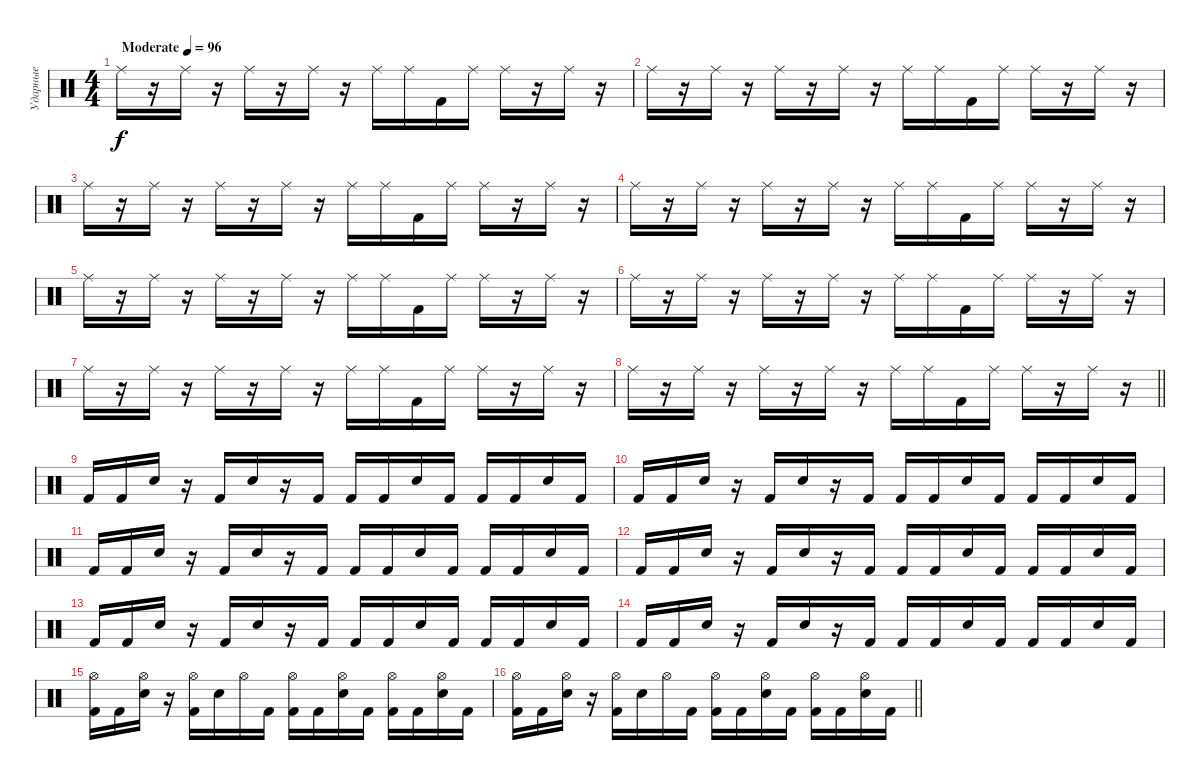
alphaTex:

\track ("Ударные" "Ударные") {instrument percussion}
\staff {score}
\articulation defaults
\ts (4 4)
\tempo (96 "Moderate")
\clef neutral
\ks c "Ride (middle)".16{dy f}
r.16 "Ride (middle)".16 r.16 "Ride (middle)".16 r.16 "Ride (middle)".16 r.16 "Ride (middle)".16 "Ride (middle)".16 "Kick (hit) 2".16 "Ride (middle)".16 "Ride (middle)".16 r.16 "Ride (middle)".16 r.16 |
"Ride (middle)".16 r.16 "Ride (middle)".16 r.16 "Ride (middle)".16 r.16 "Ride (middle)".16 r.16 "Ride (middle)".16 "Ride (middle)".16 "Kick (hit) 2".16 "Ride (middle)".16 "Ride (middle)".16 r.16 "Ride (middle)".16 r.16 |
"Ride (middle)".16 r.16 "Ride (middle)".16 r.16 "Ride (middle)".16 r.16 "Ride (middle)".16 r.16 "Ride (middle)".16 "Ride (middle)".16 "Kick (hit) 2".16 "Ride (middle)".16 "Ride (middle)".16 r.16 "Ride (middle)".16 r.16 |
"Ride (middle)".16 r.16 "Ride (middle)".16 r.16 "Ride (middle)".16 r.16 "Ride (middle)".16 r.16 "Ride (middle)".16 "Ride (middle)".16 "Kick (hit) 2".16 "Ride (middle)".16 "Ride (middle)".16 r.16 "Ride (middle)".16 r.16 |
"Ride (middle)".16 r.16 "Ride (middle)".16 r.16 "Ride (middle)".16 r.16 "Ride (middle)".16 r.16 "Ride (middle)".16 "Ride (middle)".16 "Kick (hit) 2".16 "Ride (middle)".16 "Ride (middle)".16 r.16 "Ride (middle)".16 r.16 |
"Ride (middle)".16 r.16 "Ride (middle)".16 r.16 "Ride (middle)".16 r.16 "Ride (middle)".16 r.16 "Ride (middle)".16 "Ride (middle)".16 "Kick (hit) 2".16 "Ride (middle)".16 "Ride (middle)".16 r.16 "Ride (middle)".16 r.16 |
"Ride (middle)".16 r.16 "Ride (middle)".16 r.16 "Ride (middle)".16 r.16 "Ride (middle)".16 r.16 "Ride (middle)".16 "Ride (middle)".16 "Kick (hit) 2".16 "Ride (middle)".16 "Ride (middle)".16 r.16 "Ride (middle)".16 r.16 |
\barLineRight lightlight "Ride (middle)".16
r.16 "Ride (middle)".16 r.16 "Ride (middle)".16 r.16 "Ride (middle)".16 r.16 "Ride (middle)".16 "Ride (middle)".16 "Kick (hit) 2".16 "Ride (middle)".16 "Ride (middle)".16 r.16 "Ride (middle)".16 r.16 |
\section ("" "")
"Kick (hit) 2".16 "Kick (hit) 2".16 "Electric Snare (hit)".16 r.16 "Kick (hit) 2".16 "Electric Snare (hit)".16 r.16 "Kick (hit) 2".16 "Kick (hit) 2".16 "Kick (hit) 2".16 "Electric Snare (hit)".16 "Kick (hit) 2".16 "Kick (hit) 2".16 "Kick (hit) 2".16 "Electric Snare (hit)".16 "Kick (hit) 2".16 |
"Kick (hit) 2".16 "Kick (hit) 2".16 "Electric Snare (hit)".16 r.16 "Kick (hit) 2".16 "Electric Snare (hit)".16 r.16 "Kick (hit) 2".16 "Kick (hit) 2".16 "Kick (hit) 2".16 "Electric Snare (hit)".16 "Kick (hit) 2".16 "Kick (hit) 2".16 "Kick (hit) 2".16 "Electric Snare (hit)".16 "Kick (hit) 2".16 |
"Kick (hit) 2".16 "Kick (hit) 2".16 "Electric Snare (hit)".16 r.16 "Kick (hit) 2".16 "Electric Snare (hit)".16 r.16 "Kick (hit) 2".16 "Kick (hit) 2".16 "Kick (hit) 2".16 "Electric Snare (hit)".16 "Kick (hit) 2".16 "Kick (hit) 2".16 "Kick (hit) 2".16 "Electric Snare (hit)".16 "Kick (hit) 2".16 |
"Kick (hit) 2".16 "Kick (hit) 2".16 "Electric Snare (hit)".16 r.16 "Kick (hit) 2".16 "Electric Snare (hit)".16 r.16 "Kick (hit) 2".16 "Kick (hit) 2".16 "Kick (hit) 2".16 "Electric Snare (hit)".16 "Kick (hit) 2".16 "Kick (hit) 2".16 "Kick (hit) 2".16 "Electric Snare (hit)".16 "Kick (hit) 2".16 |
"Kick (hit) 2".16 "Kick (hit) 2".16 "Electric Snare (hit)".16 r.16 "Kick (hit) 2".16 "Electric Snare (hit)".16 r.16 "Kick (hit) 2".16 "Kick (hit) 2".16 "Kick (hit) 2".16 "Electric Snare (hit)".16 "Kick (hit) 2".16 "Kick (hit) 2".16 "Kick (hit) 2".16 "Electric Snare (hit)".16 "Kick (hit) 2".16 |
"Kick (hit) 2".16 "Kick (hit) 2".16 "Electric Snare (hit)".16 r.16 "Kick (hit) 2".16 "Electric Snare (hit)".16 r.16 "Kick (hit) 2".16 "Kick (hit) 2".16 "Kick (hit) 2".16 "Electric Snare (hit)".16 "Kick (hit) 2".16 "Kick (hit) 2".16 "Kick (hit) 2".16 "Electric Snare (hit)".16 "Kick (hit) 2".16 |
("Hi-Hat (open)" "Kick (hit) 2").16 "Kick (hit) 2".16 ("Hi-Hat (open)" "Electric Snare (hit)").16 r.16 ("Hi-Hat (open)" "Kick (hit) 2").16 "Electric Snare (hit)".16 "Hi-Hat (open)".16 "Kick (hit) 2".16 ("Hi-Hat (open)" "Kick (hit) 2").16 "Kick (hit) 2".16 ("Hi-Hat (open)" "Electric Snare (hit)").16 "Kick (hit) 2".16 ("Hi-Hat (open)" "Kick (hit) 2").16 "Kick (hit) 2".16 ("Hi-Hat (open)" "Electric Snare (hit)").16 "Kick (hit) 2".16 |
\barLineRight lightlight
("Hi-Hat (open)" "Kick (hit) 2").16 "Kick (hit) 2".16 ("Hi-Hat (open)" "Electric Snare (hit)").16 r.16 ("Hi-Hat (open)" "Kick (hit) 2").16 "Electric Snare (hit)".16 "Hi-Hat (open)".16 "Kick (hit) 2".16 ("Hi-Hat (open)" "Kick (hit) 2").16 "Kick (hit) 2".16 ("Hi-Hat (open)" "Electric Snare (hit)").16 "Kick (hit) 2".16 ("Hi-Hat (open)" "Kick (hit) 2").16 "Kick (hit) 2".16 ("Hi-Hat (open)" "Electric Snare (hit)").16 "Kick (hit) 2".16
